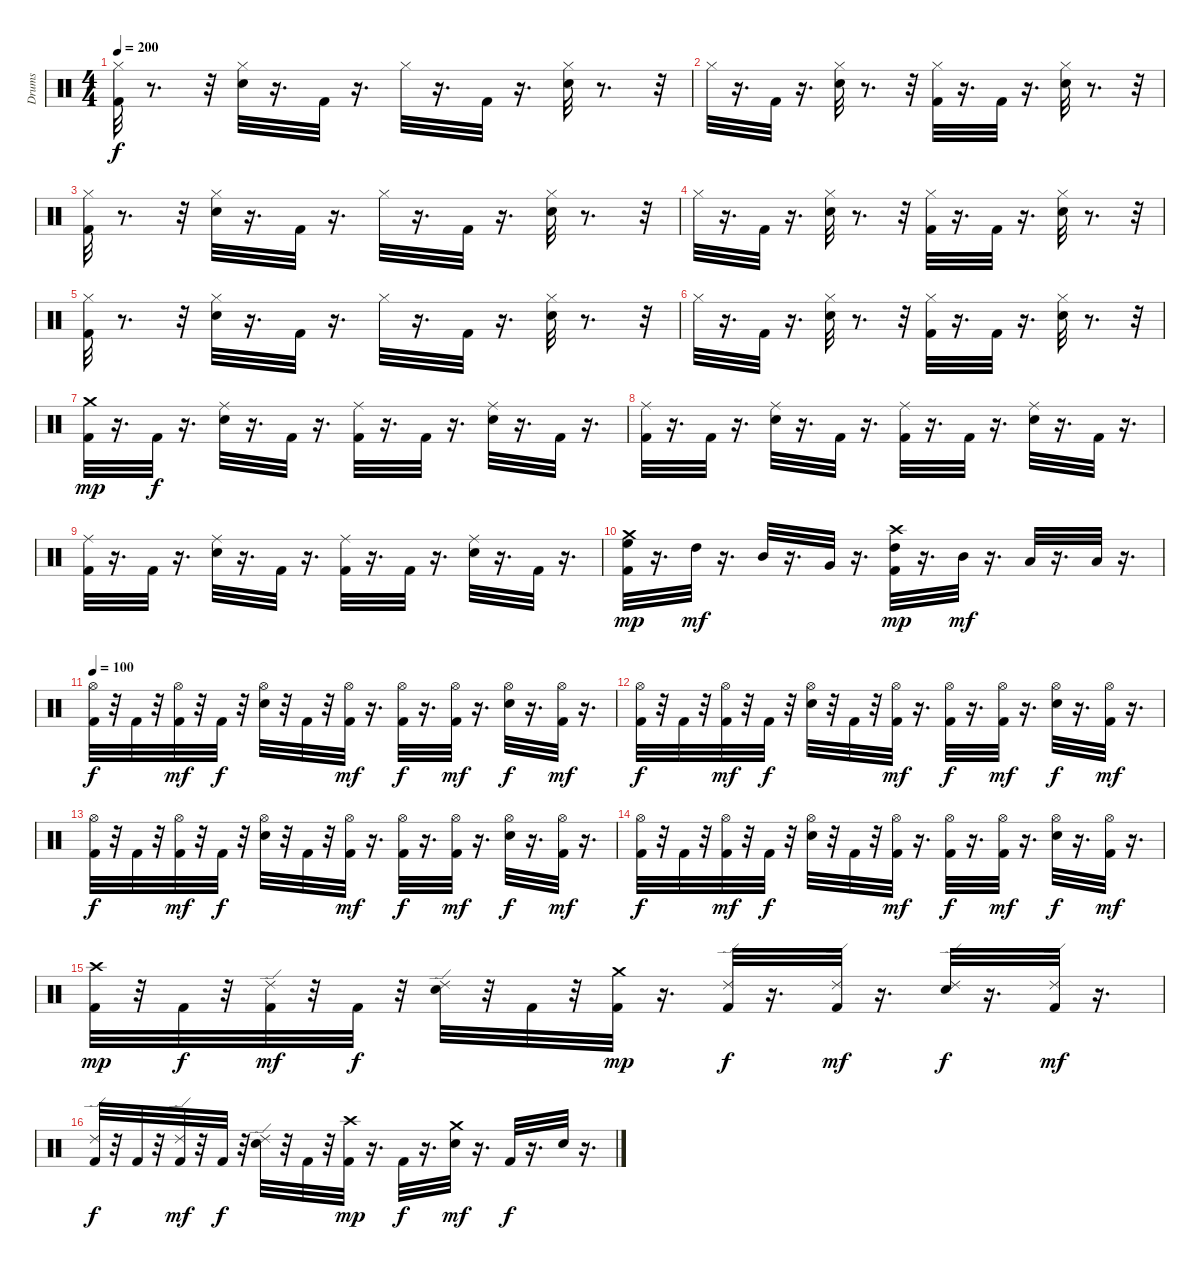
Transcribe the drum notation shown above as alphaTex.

\track ("Drums" "Drums") {instrument percussion}
\staff {score}
\articulation defaults
\ts (4 4)
\tempo 200
\clef neutral
\ks c
("Kick (hit) 2" "Hi-Hat (closed)").32{dy f} r.8{d} r.32 ("Snare (hit) 2" "Hi-Hat (closed)").32 r.16{d} "Kick (hit) 2".32 r.16{d} "Hi-Hat (closed)".32 r.16{d} "Kick (hit) 2".32 r.16{d} ("Snare (hit) 2" "Hi-Hat (closed)").32 r.8{d} r.32 |
"Hi-Hat (closed)".32 r.16{d} "Kick (hit) 2".32 r.16{d} ("Snare (hit) 2" "Hi-Hat (closed)").32 r.8{d} r.32 ("Kick (hit) 2" "Hi-Hat (closed)").32 r.16{d} "Kick (hit) 2".32 r.16{d} ("Snare (hit) 2" "Hi-Hat (closed)").32 r.8{d} r.32 |
("Kick (hit) 2" "Hi-Hat (closed)").32 r.8{d} r.32 ("Snare (hit) 2" "Hi-Hat (closed)").32 r.16{d} "Kick (hit) 2".32 r.16{d} "Hi-Hat (closed)".32 r.16{d} "Kick (hit) 2".32 r.16{d} ("Snare (hit) 2" "Hi-Hat (closed)").32 r.8{d} r.32 |
"Hi-Hat (closed)".32 r.16{d} "Kick (hit) 2".32 r.16{d} ("Snare (hit) 2" "Hi-Hat (closed)").32 r.8{d} r.32 ("Kick (hit) 2" "Hi-Hat (closed)").32 r.16{d} "Kick (hit) 2".32 r.16{d} ("Snare (hit) 2" "Hi-Hat (closed)").32 r.8{d} r.32 |
("Kick (hit) 2" "Hi-Hat (closed)").32 r.8{d} r.32 ("Snare (hit) 2" "Hi-Hat (closed)").32 r.16{d} "Kick (hit) 2".32 r.16{d} "Hi-Hat (closed)".32 r.16{d} "Kick (hit) 2".32 r.16{d} ("Snare (hit) 2" "Hi-Hat (closed)").32 r.8{d} r.32 |
"Hi-Hat (closed)".32 r.16{d} "Kick (hit) 2".32 r.16{d} ("Snare (hit) 2" "Hi-Hat (closed)").32 r.8{d} r.32 ("Kick (hit) 2" "Hi-Hat (closed)").32 r.16{d} "Kick (hit) 2".32 r.16{d} ("Snare (hit) 2" "Hi-Hat (closed)").32 r.8{d} r.32 |
("Kick (hit) 2" "Crash medium (hit)").32{dy mp} r.16{d} "Kick (hit) 2".32{dy f} r.16{d} ("Snare (hit) 2" "Ride (middle)").32 r.16{d} "Kick (hit) 2".32 r.16{d} ("Kick (hit) 2" "Ride (middle)").32 r.16{d} "Kick (hit) 2".32 r.16{d} ("Snare (hit) 2" "Ride (middle)").32 r.16{d} "Kick (hit) 2".32 r.16{d} |
("Kick (hit) 2" "Ride (middle)").32 r.16{d} "Kick (hit) 2".32 r.16{d} ("Snare (hit) 2" "Ride (middle)").32 r.16{d} "Kick (hit) 2".32 r.16{d} ("Kick (hit) 2" "Ride (middle)").32 r.16{d} "Kick (hit) 2".32 r.16{d} ("Snare (hit) 2" "Ride (middle)").32 r.16{d} "Kick (hit) 2".32 r.16{d} |
("Kick (hit) 2" "Ride (middle)").32 r.16{d} "Kick (hit) 2".32 r.16{d} ("Snare (hit) 2" "Ride (middle)").32 r.16{d} "Kick (hit) 2".32 r.16{d} ("Kick (hit) 2" "Ride (middle)").32 r.16{d} "Kick (hit) 2".32 r.16{d} ("Snare (hit) 2" "Ride (middle)").32 r.16{d} "Kick (hit) 2".32 r.16{d} |
("Kick (hit) 2" "High Floor Tom (hit)" "Crash medium (hit)").32{dy mp} r.16{d} "High Tom (hit)".32{dy mf} r.16{d} "Mid Tom (hit)".32 r.16{d} "Very Low Tom (hit)".32 r.16{d} ("Kick (hit) 2" "High Tom (hit)" "Crash high (hit)").32{dy mp} r.16{d} "Mid Tom (hit)".32{dy mf} r.16{d} "Low Tom (hit)".32 r.16{d} "Low Floor Tom (hit)".32 r.16{d} |
\tempo 100
("Kick (hit) 2" "Hi-Hat (open)").32{dy f} r.32 "Kick (hit) 2".32 r.32 ("Kick (hit) 2" "Hi-Hat (open)").32{dy mf} r.32 "Kick (hit) 2".32{dy f} r.32 ("Snare (hit) 2" "Hi-Hat (open)").32 r.32 "Kick (hit) 2".32 r.32 ("Kick (hit) 2" "Hi-Hat (open)").32{dy mf} r.16{d} ("Kick (hit) 2" "Hi-Hat (open)").32{dy f} r.16{d} ("Kick (hit) 2" "Hi-Hat (open)").32{dy mf} r.16{d} ("Snare (hit) 2" "Hi-Hat (open)").32{dy f} r.16{d} ("Kick (hit) 2" "Hi-Hat (open)").32{dy mf} r.16{d} |
("Kick (hit) 2" "Hi-Hat (open)").32{dy f} r.32 "Kick (hit) 2".32 r.32 ("Kick (hit) 2" "Hi-Hat (open)").32{dy mf} r.32 "Kick (hit) 2".32{dy f} r.32 ("Snare (hit) 2" "Hi-Hat (open)").32 r.32 "Kick (hit) 2".32 r.32 ("Kick (hit) 2" "Hi-Hat (open)").32{dy mf} r.16{d} ("Kick (hit) 2" "Hi-Hat (open)").32{dy f} r.16{d} ("Kick (hit) 2" "Hi-Hat (open)").32{dy mf} r.16{d} ("Snare (hit) 2" "Hi-Hat (open)").32{dy f} r.16{d} ("Kick (hit) 2" "Hi-Hat (open)").32{dy mf} r.16{d} |
("Kick (hit) 2" "Hi-Hat (open)").32{dy f} r.32 "Kick (hit) 2".32 r.32 ("Kick (hit) 2" "Hi-Hat (open)").32{dy mf} r.32 "Kick (hit) 2".32{dy f} r.32 ("Snare (hit) 2" "Hi-Hat (open)").32 r.32 "Kick (hit) 2".32 r.32 ("Kick (hit) 2" "Hi-Hat (open)").32{dy mf} r.16{d} ("Kick (hit) 2" "Hi-Hat (open)").32{dy f} r.16{d} ("Kick (hit) 2" "Hi-Hat (open)").32{dy mf} r.16{d} ("Snare (hit) 2" "Hi-Hat (open)").32{dy f} r.16{d} ("Kick (hit) 2" "Hi-Hat (open)").32{dy mf} r.16{d} |
("Kick (hit) 2" "Hi-Hat (open)").32{dy f} r.32 "Kick (hit) 2".32 r.32 ("Kick (hit) 2" "Hi-Hat (open)").32{dy mf} r.32 "Kick (hit) 2".32{dy f} r.32 ("Snare (hit) 2" "Hi-Hat (open)").32 r.32 "Kick (hit) 2".32 r.32 ("Kick (hit) 2" "Hi-Hat (open)").32{dy mf} r.16{d} ("Kick (hit) 2" "Hi-Hat (open)").32{dy f} r.16{d} ("Kick (hit) 2" "Hi-Hat (open)").32{dy mf} r.16{d} ("Snare (hit) 2" "Hi-Hat (open)").32{dy f} r.16{d} ("Kick (hit) 2" "Hi-Hat (open)").32{dy mf} r.16{d} |
("Kick (hit) 2" "Crash high (hit)").32{dy mp} r.32 "Kick (hit) 2".32{dy f} r.32 ("Kick (hit) 2" "Ride (edge) 2").32{dy mf} r.32 "Kick (hit) 2".32{dy f} r.32 ("Snare (hit) 2" "Ride (edge) 2").32 r.32 "Kick (hit) 2".32 r.32 ("Kick (hit) 2" "Crash medium (hit)").32{dy mp} r.16{d} ("Kick (hit) 2" "Ride (edge) 2").32{dy f} r.16{d} ("Kick (hit) 2" "Ride (edge) 2").32{dy mf} r.16{d} ("Snare (hit) 2" "Ride (edge) 2").32{dy f} r.16{d} ("Kick (hit) 2" "Ride (edge) 2").32{dy mf} r.16{d} |
("Kick (hit) 2" "Ride (edge) 2").32{dy f} r.32 "Kick (hit) 2".32 r.32 ("Kick (hit) 2" "Ride (edge) 2").32{dy mf} r.32 "Kick (hit) 2".32{dy f} r.32 ("Snare (hit) 2" "Ride (edge) 2").32 r.32 "Kick (hit) 2".32 r.32 ("Kick (hit) 2" "Crash high (hit)").32{dy mp} r.16{d} "Kick (hit) 2".32{dy f} r.16{d} ("Snare (hit) 2" "Crash medium (hit)").32{dy mf} r.16{d} "Kick (hit) 2".32{dy f} r.16{d} "Snare (hit) 2".32 r.16{d}
